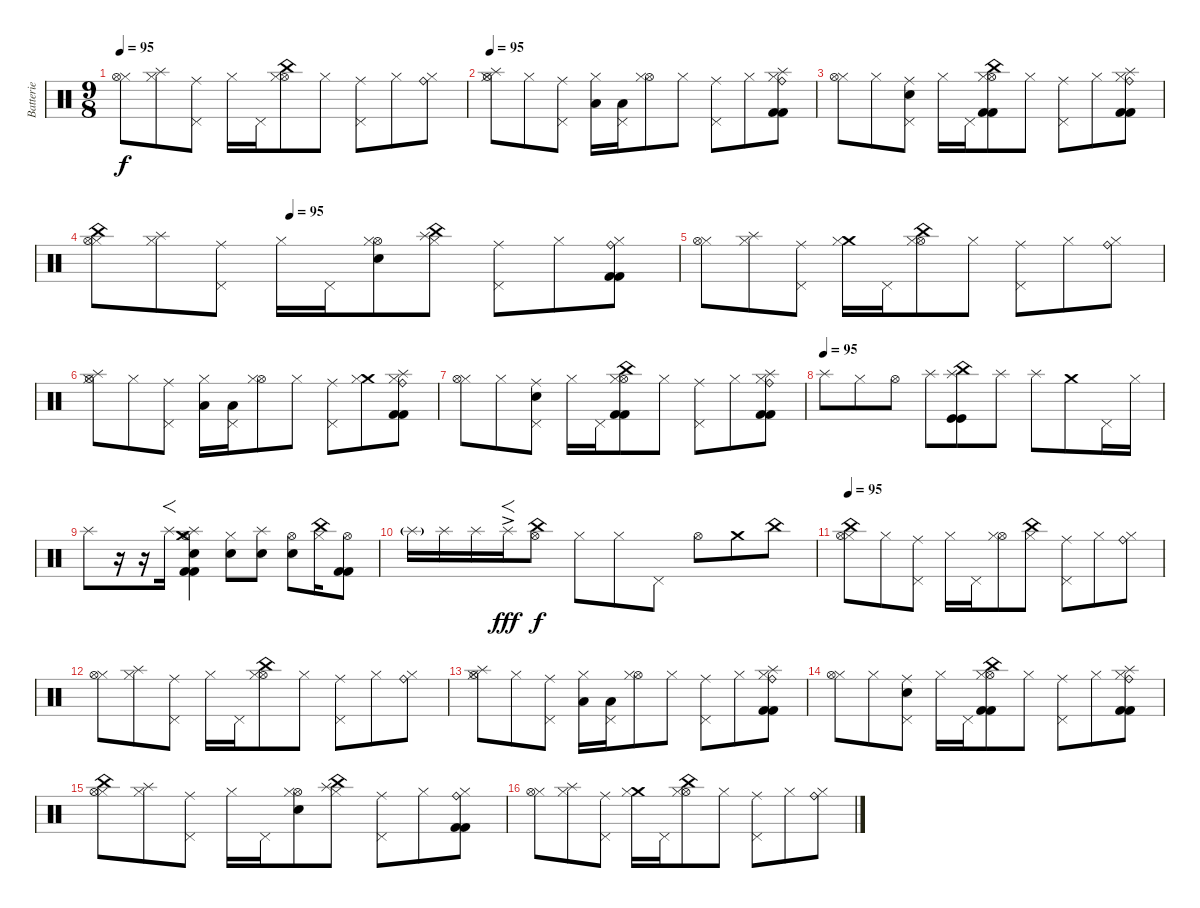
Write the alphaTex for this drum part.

\track ("Batterie" "Batterie") {instrument percussion}
\staff {score}
\articulation defaults
\ts (9 8)
\tempo 95
\clef neutral
\ks c
("Hi-Hat (closed)" "Hi-Hat (open)").8{dy f} ("Splash (hit)" "Hi-Hat (closed)").8 ("Ride (middle)" "Pedal Hi-Hat (hit)").8 "Hi-Hat (closed)".16 "Pedal Hi-Hat (hit)".16 ("China (hit)" "Hi-Hat (open)" "Hi-Hat (closed)").8 "Hi-Hat (closed)".8 ("Ride (middle)" "Pedal Hi-Hat (hit)").8 "Hi-Hat (closed)".8 ("Ride (bell)" "Hi-Hat (closed)").8 |
\tempo 95
("Splash (hit)" "Hi-Hat (closed)" "Hi-Hat (open)").8 "Hi-Hat (closed)".8 ("Ride (middle)" "Pedal Hi-Hat (hit)").8 ("Low Tom (hit)" "Hi-Hat (closed)").16 ("Low Tom (hit)" "Pedal Hi-Hat (hit)").16 ("Hi-Hat (open)" "Hi-Hat (closed)").8 "Hi-Hat (closed)".8 ("Ride (middle)" "Pedal Hi-Hat (hit)").8 "Hi-Hat (closed)".8 ("Kick (hit) 2" "Splash (hit)" "Ride (bell)" "Kick (hit) 2" "Hi-Hat (closed)").8 |
("Hi-Hat (closed)" "Hi-Hat (open)").8 "Hi-Hat (closed)".8 ("Electric Snare (hit)" "Ride (middle)" "Pedal Hi-Hat (hit)").8 "Hi-Hat (closed)".16 "Pedal Hi-Hat (hit)".16 ("Kick (hit) 2" "Kick (hit) 2" "China (hit)" "Hi-Hat (open)" "Hi-Hat (closed)").8 "Hi-Hat (closed)".8 ("Ride (middle)" "Pedal Hi-Hat (hit)").8 "Hi-Hat (closed)".8 ("Kick (hit) 2" "Kick (hit) 2" "Ride (bell)" "Splash (hit)" "Hi-Hat (closed)").8 |
\tempo (95 0.3333333333333333)
("China (hit)" "Hi-Hat (closed)" "Hi-Hat (open)").8 ("Splash (hit)" "Hi-Hat (closed)").8 ("Ride (middle)" "Pedal Hi-Hat (hit)").8 "Hi-Hat (closed)".16 "Pedal Hi-Hat (hit)".16 ("Electric Snare (hit)" "Hi-Hat (open)" "Hi-Hat (closed)").8 ("Splash (hit)" "China (hit)" "Hi-Hat (closed)").8 ("Ride (middle)" "Pedal Hi-Hat (hit)").8 "Hi-Hat (closed)".8 ("Kick (hit) 2" "Ride (bell)" "Kick (hit) 2" "Hi-Hat (closed)").8 |
("Hi-Hat (closed)" "Hi-Hat (open)").8 ("Splash (hit)" "Hi-Hat (closed)").8 ("Ride (middle)" "Pedal Hi-Hat (hit)").8 ("Crash medium (hit)" "Hi-Hat (closed)").16 "Pedal Hi-Hat (hit)".16 ("China (hit)" "Hi-Hat (open)" "Hi-Hat (closed)").8 "Hi-Hat (closed)".8 ("Ride (middle)" "Pedal Hi-Hat (hit)").8 "Hi-Hat (closed)".8 ("Ride (bell)" "Hi-Hat (closed)").8 |
("Splash (hit)" "Hi-Hat (closed)" "Hi-Hat (open)").8 "Hi-Hat (closed)".8 ("Ride (middle)" "Pedal Hi-Hat (hit)").8 ("Low Tom (hit)" "Hi-Hat (closed)").16 ("Low Tom (hit)" "Pedal Hi-Hat (hit)").16 ("Hi-Hat (open)" "Hi-Hat (closed)").8 "Hi-Hat (closed)".8 ("Ride (middle)" "Pedal Hi-Hat (hit)").8 ("Crash medium (hit)" "Hi-Hat (closed)").8 ("Kick (hit) 2" "Splash (hit)" "Ride (bell)" "Kick (hit) 2" "Hi-Hat (closed)").8 |
("Hi-Hat (closed)" "Hi-Hat (open)").8 "Hi-Hat (closed)".8 ("Electric Snare (hit)" "Ride (middle)" "Pedal Hi-Hat (hit)").8 "Hi-Hat (closed)".16 "Pedal Hi-Hat (hit)".16 ("Kick (hit) 2" "Kick (hit) 2" "China (hit)" "Hi-Hat (open)" "Hi-Hat (closed)").8 "Hi-Hat (closed)".8 ("Ride (middle)" "Pedal Hi-Hat (hit)").8 "Hi-Hat (closed)".8 ("Kick (hit) 2" "Kick (hit) 2" "Ride (bell)" "Splash (hit)" "Hi-Hat (closed)").8 |
\tempo (95)
"Splash (hit)".8 "Hi-Hat (closed)".8 "Hi-Hat (open)".8 "Splash (hit)".8 ("China (hit)" "Kick (hit)" "Kick (hit)" "Splash (hit)").8 "Splash (hit)".8 "Splash (hit)".8 "Crash medium (hit)".8 "Pedal Hi-Hat (hit)".16 "Hi-Hat (closed)".16 |
"Splash (hit)".8 r.16 r.16 "Splash (hit)".16{f} ("Kick (hit) 2" "Electric Snare (hit)" "Crash medium (hit)" "Hi-Hat (open)" "Splash (hit)" "Kick (hit) 2").4 ("Hi-Hat (closed)" "Electric Snare (hit)").8 ("Splash (hit)" "Electric Snare (hit)").8 ("Hi-Hat (open)" "Electric Snare (hit)").8 ("Hi-Hat (closed)" "China (hit)").16 ("Kick (hit) 2" "Kick (hit) 2" "Hi-Hat (open)").8 |
"Splash (hit)"{g}.16 "Splash (hit)".16 "Splash (hit)".16 "Splash (hit)"{ac}.16{f dy fff} ("Hi-Hat (open)" "China (hit)").8{dy f} "Hi-Hat (closed)".8 "Hi-Hat (closed)".8 "Pedal Hi-Hat (hit)".8 "Hi-Hat (open)".8 "Crash medium (hit)".8 "China (hit)".8 |
\tempo 95
("China (hit)" "Hi-Hat (closed)" "Hi-Hat (open)").8 "Hi-Hat (closed)".8 ("Ride (middle)" "Pedal Hi-Hat (hit)").8 "Hi-Hat (closed)".16 "Pedal Hi-Hat (hit)".16 ("Hi-Hat (open)" "Hi-Hat (closed)").8 ("China (hit)" "Hi-Hat (closed)").8 ("Ride (middle)" "Pedal Hi-Hat (hit)").8 "Hi-Hat (closed)".8 ("Ride (bell)" "Hi-Hat (closed)").8 |
("Hi-Hat (closed)" "Hi-Hat (open)").8 ("Splash (hit)" "Hi-Hat (closed)").8 ("Ride (middle)" "Pedal Hi-Hat (hit)").8 "Hi-Hat (closed)".16 "Pedal Hi-Hat (hit)".16 ("China (hit)" "Hi-Hat (open)" "Hi-Hat (closed)").8 "Hi-Hat (closed)".8 ("Ride (middle)" "Pedal Hi-Hat (hit)").8 "Hi-Hat (closed)".8 ("Ride (bell)" "Hi-Hat (closed)").8 |
("Splash (hit)" "Hi-Hat (closed)" "Hi-Hat (open)").8 "Hi-Hat (closed)".8 ("Ride (middle)" "Pedal Hi-Hat (hit)").8 ("Low Tom (hit)" "Hi-Hat (closed)").16 ("Low Tom (hit)" "Pedal Hi-Hat (hit)").16 ("Hi-Hat (open)" "Hi-Hat (closed)").8 "Hi-Hat (closed)".8 ("Ride (middle)" "Pedal Hi-Hat (hit)").8 "Hi-Hat (closed)".8 ("Kick (hit) 2" "Splash (hit)" "Ride (bell)" "Kick (hit) 2" "Hi-Hat (closed)").8 |
("Hi-Hat (closed)" "Hi-Hat (open)").8 "Hi-Hat (closed)".8 ("Electric Snare (hit)" "Ride (middle)" "Pedal Hi-Hat (hit)").8 "Hi-Hat (closed)".16 "Pedal Hi-Hat (hit)".16 ("Kick (hit) 2" "Kick (hit) 2" "China (hit)" "Hi-Hat (open)" "Hi-Hat (closed)").8 "Hi-Hat (closed)".8 ("Ride (middle)" "Pedal Hi-Hat (hit)").8 "Hi-Hat (closed)".8 ("Kick (hit) 2" "Kick (hit) 2" "Ride (bell)" "Splash (hit)" "Hi-Hat (closed)").8 |
("China (hit)" "Hi-Hat (closed)" "Hi-Hat (open)").8 ("Splash (hit)" "Hi-Hat (closed)").8 ("Ride (middle)" "Pedal Hi-Hat (hit)").8 "Hi-Hat (closed)".16 "Pedal Hi-Hat (hit)".16 ("Electric Snare (hit)" "Hi-Hat (open)" "Hi-Hat (closed)").8 ("Splash (hit)" "China (hit)" "Hi-Hat (closed)").8 ("Ride (middle)" "Pedal Hi-Hat (hit)").8 "Hi-Hat (closed)".8 ("Kick (hit) 2" "Ride (bell)" "Kick (hit) 2" "Hi-Hat (closed)").8 |
("Hi-Hat (closed)" "Hi-Hat (open)").8 ("Splash (hit)" "Hi-Hat (closed)").8 ("Ride (middle)" "Pedal Hi-Hat (hit)").8 ("Crash medium (hit)" "Hi-Hat (closed)").16 "Pedal Hi-Hat (hit)".16 ("China (hit)" "Hi-Hat (open)" "Hi-Hat (closed)").8 "Hi-Hat (closed)".8 ("Ride (middle)" "Pedal Hi-Hat (hit)").8 "Hi-Hat (closed)".8 ("Ride (bell)" "Hi-Hat (closed)").8
